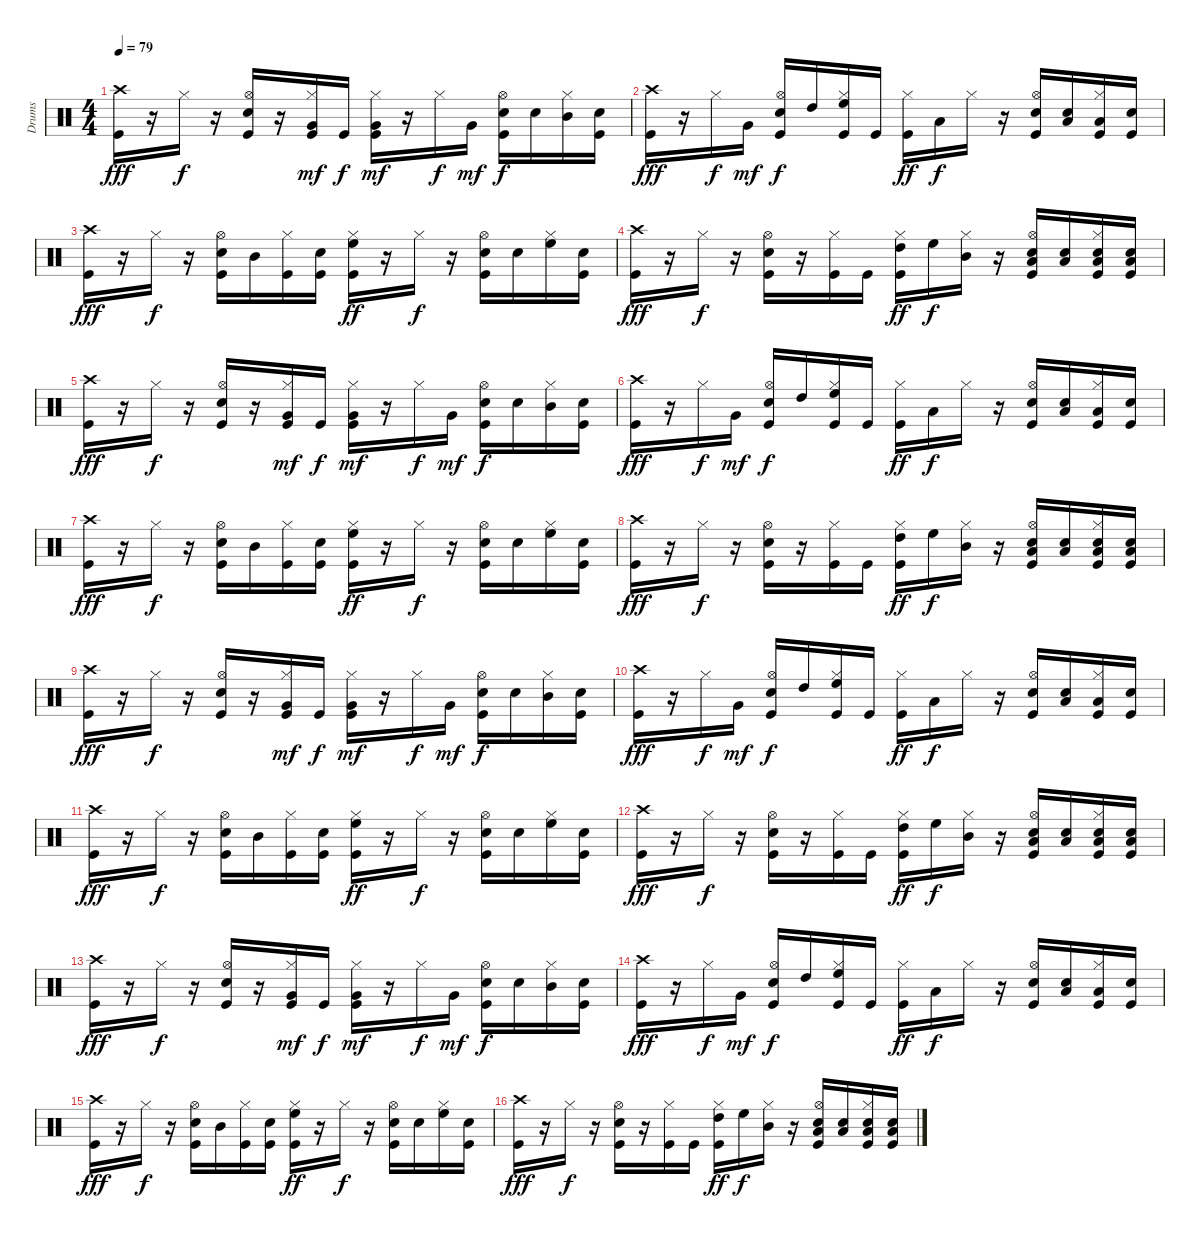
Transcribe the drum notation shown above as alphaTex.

\track ("Drums" "Drums") {instrument percussion}
\staff {score}
\articulation defaults
\ts (4 4)
\tempo 79
\clef neutral
\ks c
("Crash high (hit)" "Kick (hit)").16{dy fff volume 11} r.16 "Hi-Hat (closed)".16{dy f} r.16 ("Hi-Hat (open)" "Electric Snare (hit)" "Kick (hit)").16 r.16 ("Hi-Hat (closed)" "Very Low Tom (hit)" "Kick (hit)").16{dy mf} "Kick (hit)".16{dy f} ("Hi-Hat (closed)" "Very Low Tom (hit)" "Kick (hit)").16{dy mf} r.16 "Hi-Hat (closed)".16{dy f} "Very Low Tom (hit)".16{dy mf} ("Hi-Hat (open)" "Electric Snare (hit)" "Kick (hit)").16{dy f} "Electric Snare (hit)".16 ("Hi-Hat (closed)" "Mid Tom (hit)").16 ("Electric Snare (hit)" "Kick (hit)").16 |
("Crash high (hit)" "Kick (hit)").16{dy fff} r.16 "Hi-Hat (closed)".16{dy f} "Very Low Tom (hit)".16{dy mf} ("Hi-Hat (open)" "Electric Snare (hit)" "Kick (hit)").16{dy f} "High Tom (hit)".16 ("Hi-Hat (closed)" "High Floor Tom (hit)" "Kick (hit)").16 "Kick (hit)".16 ("Hi-Hat (closed)" "Kick (hit)").16{dy ff} "Low Tom (hit)".16{dy f} "Hi-Hat (closed)".16 r.16 ("Hi-Hat (open)" "Electric Snare (hit)" "Kick (hit)").16 ("Low Tom (hit)" "Electric Snare (hit)").16 ("Hi-Hat (closed)" "Low Tom (hit)" "Kick (hit)").16 ("Electric Snare (hit)" "Kick (hit)").16 |
("Crash high (hit)" "Kick (hit)").16{dy fff volume 11} r.16 "Hi-Hat (closed)".16{dy f} r.16 ("Hi-Hat (open)" "Electric Snare (hit)" "Kick (hit)").16 "Mid Tom (hit)".16 ("Hi-Hat (closed)" "Kick (hit)").16 ("Electric Snare (hit)" "Kick (hit)").16 ("Hi-Hat (closed)" "High Floor Tom (hit)" "Kick (hit)").16{dy ff} r.16 "Hi-Hat (closed)".16{dy f} r.16 ("Hi-Hat (open)" "Electric Snare (hit)" "Kick (hit)").16 "Electric Snare (hit)".16 ("Hi-Hat (closed)" "High Floor Tom (hit)").16 ("Electric Snare (hit)" "Kick (hit)").16 |
("Crash high (hit)" "Kick (hit)").16{dy fff} r.16 "Hi-Hat (closed)".16{dy f} r.16 ("Hi-Hat (open)" "Electric Snare (hit)" "Kick (hit)").16 r.16 ("Hi-Hat (closed)" "Kick (hit)").16 "Kick (hit)".16 ("Hi-Hat (closed)" "High Tom (hit)" "Kick (hit)").16{dy ff} "High Floor Tom (hit)".16{dy f} ("Hi-Hat (closed)" "Mid Tom (hit)").16 r.16 ("Hi-Hat (open)" "Electric Snare (hit)" "Low Floor Tom (hit)" "Kick (hit)").16 ("Electric Snare (hit)" "Low Floor Tom (hit)").16 ("Hi-Hat (closed)" "Electric Snare (hit)" "Low Floor Tom (hit)" "Kick (hit)").16 ("Electric Snare (hit)" "Low Floor Tom (hit)" "Kick (hit)").16 |
("Crash high (hit)" "Kick (hit)").16{dy fff volume 11} r.16 "Hi-Hat (closed)".16{dy f} r.16 ("Hi-Hat (open)" "Electric Snare (hit)" "Kick (hit)").16 r.16 ("Hi-Hat (closed)" "Very Low Tom (hit)" "Kick (hit)").16{dy mf} "Kick (hit)".16{dy f} ("Hi-Hat (closed)" "Very Low Tom (hit)" "Kick (hit)").16{dy mf} r.16 "Hi-Hat (closed)".16{dy f} "Very Low Tom (hit)".16{dy mf} ("Hi-Hat (open)" "Electric Snare (hit)" "Kick (hit)").16{dy f} "Electric Snare (hit)".16 ("Hi-Hat (closed)" "Mid Tom (hit)").16 ("Electric Snare (hit)" "Kick (hit)").16 |
("Crash high (hit)" "Kick (hit)").16{dy fff} r.16 "Hi-Hat (closed)".16{dy f} "Very Low Tom (hit)".16{dy mf} ("Hi-Hat (open)" "Electric Snare (hit)" "Kick (hit)").16{dy f} "High Tom (hit)".16 ("Hi-Hat (closed)" "High Floor Tom (hit)" "Kick (hit)").16 "Kick (hit)".16 ("Hi-Hat (closed)" "Kick (hit)").16{dy ff} "Low Tom (hit)".16{dy f} "Hi-Hat (closed)".16 r.16 ("Hi-Hat (open)" "Electric Snare (hit)" "Kick (hit)").16 ("Low Tom (hit)" "Electric Snare (hit)").16 ("Hi-Hat (closed)" "Low Tom (hit)" "Kick (hit)").16 ("Electric Snare (hit)" "Kick (hit)").16 |
("Crash high (hit)" "Kick (hit)").16{dy fff volume 11} r.16 "Hi-Hat (closed)".16{dy f} r.16 ("Hi-Hat (open)" "Electric Snare (hit)" "Kick (hit)").16 "Mid Tom (hit)".16 ("Hi-Hat (closed)" "Kick (hit)").16 ("Electric Snare (hit)" "Kick (hit)").16 ("Hi-Hat (closed)" "High Floor Tom (hit)" "Kick (hit)").16{dy ff} r.16 "Hi-Hat (closed)".16{dy f} r.16 ("Hi-Hat (open)" "Electric Snare (hit)" "Kick (hit)").16 "Electric Snare (hit)".16 ("Hi-Hat (closed)" "High Floor Tom (hit)").16 ("Electric Snare (hit)" "Kick (hit)").16 |
("Crash high (hit)" "Kick (hit)").16{dy fff} r.16 "Hi-Hat (closed)".16{dy f} r.16 ("Hi-Hat (open)" "Electric Snare (hit)" "Kick (hit)").16 r.16 ("Hi-Hat (closed)" "Kick (hit)").16 "Kick (hit)".16 ("Hi-Hat (closed)" "High Tom (hit)" "Kick (hit)").16{dy ff} "High Floor Tom (hit)".16{dy f} ("Hi-Hat (closed)" "Mid Tom (hit)").16 r.16 ("Hi-Hat (open)" "Electric Snare (hit)" "Low Floor Tom (hit)" "Kick (hit)").16 ("Electric Snare (hit)" "Low Floor Tom (hit)").16 ("Hi-Hat (closed)" "Electric Snare (hit)" "Low Floor Tom (hit)" "Kick (hit)").16 ("Electric Snare (hit)" "Low Floor Tom (hit)" "Kick (hit)").16 |
("Crash high (hit)" "Kick (hit)").16{dy fff volume 11} r.16 "Hi-Hat (closed)".16{dy f} r.16 ("Hi-Hat (open)" "Electric Snare (hit)" "Kick (hit)").16 r.16 ("Hi-Hat (closed)" "Very Low Tom (hit)" "Kick (hit)").16{dy mf} "Kick (hit)".16{dy f} ("Hi-Hat (closed)" "Very Low Tom (hit)" "Kick (hit)").16{dy mf} r.16 "Hi-Hat (closed)".16{dy f} "Very Low Tom (hit)".16{dy mf} ("Hi-Hat (open)" "Electric Snare (hit)" "Kick (hit)").16{dy f} "Electric Snare (hit)".16 ("Hi-Hat (closed)" "Mid Tom (hit)").16 ("Electric Snare (hit)" "Kick (hit)").16 |
("Crash high (hit)" "Kick (hit)").16{dy fff} r.16 "Hi-Hat (closed)".16{dy f} "Very Low Tom (hit)".16{dy mf} ("Hi-Hat (open)" "Electric Snare (hit)" "Kick (hit)").16{dy f} "High Tom (hit)".16 ("Hi-Hat (closed)" "High Floor Tom (hit)" "Kick (hit)").16 "Kick (hit)".16 ("Hi-Hat (closed)" "Kick (hit)").16{dy ff} "Low Tom (hit)".16{dy f} "Hi-Hat (closed)".16 r.16 ("Hi-Hat (open)" "Electric Snare (hit)" "Kick (hit)").16 ("Low Tom (hit)" "Electric Snare (hit)").16 ("Hi-Hat (closed)" "Low Tom (hit)" "Kick (hit)").16 ("Electric Snare (hit)" "Kick (hit)").16 |
("Crash high (hit)" "Kick (hit)").16{dy fff volume 11} r.16 "Hi-Hat (closed)".16{dy f} r.16 ("Hi-Hat (open)" "Electric Snare (hit)" "Kick (hit)").16 "Mid Tom (hit)".16 ("Hi-Hat (closed)" "Kick (hit)").16 ("Electric Snare (hit)" "Kick (hit)").16 ("Hi-Hat (closed)" "High Floor Tom (hit)" "Kick (hit)").16{dy ff} r.16 "Hi-Hat (closed)".16{dy f} r.16 ("Hi-Hat (open)" "Electric Snare (hit)" "Kick (hit)").16 "Electric Snare (hit)".16 ("Hi-Hat (closed)" "High Floor Tom (hit)").16 ("Electric Snare (hit)" "Kick (hit)").16 |
("Crash high (hit)" "Kick (hit)").16{dy fff} r.16 "Hi-Hat (closed)".16{dy f} r.16 ("Hi-Hat (open)" "Electric Snare (hit)" "Kick (hit)").16 r.16 ("Hi-Hat (closed)" "Kick (hit)").16 "Kick (hit)".16 ("Hi-Hat (closed)" "High Tom (hit)" "Kick (hit)").16{dy ff} "High Floor Tom (hit)".16{dy f} ("Hi-Hat (closed)" "Mid Tom (hit)").16 r.16 ("Hi-Hat (open)" "Electric Snare (hit)" "Low Floor Tom (hit)" "Kick (hit)").16 ("Electric Snare (hit)" "Low Floor Tom (hit)").16 ("Hi-Hat (closed)" "Electric Snare (hit)" "Low Floor Tom (hit)" "Kick (hit)").16 ("Electric Snare (hit)" "Low Floor Tom (hit)" "Kick (hit)").16 |
("Crash high (hit)" "Kick (hit)").16{dy fff volume 11} r.16 "Hi-Hat (closed)".16{dy f} r.16 ("Hi-Hat (open)" "Electric Snare (hit)" "Kick (hit)").16 r.16 ("Hi-Hat (closed)" "Very Low Tom (hit)" "Kick (hit)").16{dy mf} "Kick (hit)".16{dy f} ("Hi-Hat (closed)" "Very Low Tom (hit)" "Kick (hit)").16{dy mf} r.16 "Hi-Hat (closed)".16{dy f} "Very Low Tom (hit)".16{dy mf} ("Hi-Hat (open)" "Electric Snare (hit)" "Kick (hit)").16{dy f} "Electric Snare (hit)".16 ("Hi-Hat (closed)" "Mid Tom (hit)").16 ("Electric Snare (hit)" "Kick (hit)").16 |
("Crash high (hit)" "Kick (hit)").16{dy fff} r.16 "Hi-Hat (closed)".16{dy f} "Very Low Tom (hit)".16{dy mf} ("Hi-Hat (open)" "Electric Snare (hit)" "Kick (hit)").16{dy f} "High Tom (hit)".16 ("Hi-Hat (closed)" "High Floor Tom (hit)" "Kick (hit)").16 "Kick (hit)".16 ("Hi-Hat (closed)" "Kick (hit)").16{dy ff} "Low Tom (hit)".16{dy f} "Hi-Hat (closed)".16 r.16 ("Hi-Hat (open)" "Electric Snare (hit)" "Kick (hit)").16 ("Low Tom (hit)" "Electric Snare (hit)").16 ("Hi-Hat (closed)" "Low Tom (hit)" "Kick (hit)").16 ("Electric Snare (hit)" "Kick (hit)").16 |
("Crash high (hit)" "Kick (hit)").16{dy fff volume 11} r.16 "Hi-Hat (closed)".16{dy f} r.16 ("Hi-Hat (open)" "Electric Snare (hit)" "Kick (hit)").16 "Mid Tom (hit)".16 ("Hi-Hat (closed)" "Kick (hit)").16 ("Electric Snare (hit)" "Kick (hit)").16 ("Hi-Hat (closed)" "High Floor Tom (hit)" "Kick (hit)").16{dy ff} r.16 "Hi-Hat (closed)".16{dy f} r.16 ("Hi-Hat (open)" "Electric Snare (hit)" "Kick (hit)").16 "Electric Snare (hit)".16 ("Hi-Hat (closed)" "High Floor Tom (hit)").16 ("Electric Snare (hit)" "Kick (hit)").16 |
("Crash high (hit)" "Kick (hit)").16{dy fff} r.16 "Hi-Hat (closed)".16{dy f} r.16 ("Hi-Hat (open)" "Electric Snare (hit)" "Kick (hit)").16 r.16 ("Hi-Hat (closed)" "Kick (hit)").16 "Kick (hit)".16 ("Hi-Hat (closed)" "High Tom (hit)" "Kick (hit)").16{dy ff} "High Floor Tom (hit)".16{dy f} ("Hi-Hat (closed)" "Mid Tom (hit)").16 r.16 ("Hi-Hat (open)" "Electric Snare (hit)" "Low Floor Tom (hit)" "Kick (hit)").16 ("Electric Snare (hit)" "Low Floor Tom (hit)").16 ("Hi-Hat (closed)" "Electric Snare (hit)" "Low Floor Tom (hit)" "Kick (hit)").16 ("Electric Snare (hit)" "Low Floor Tom (hit)" "Kick (hit)").16
